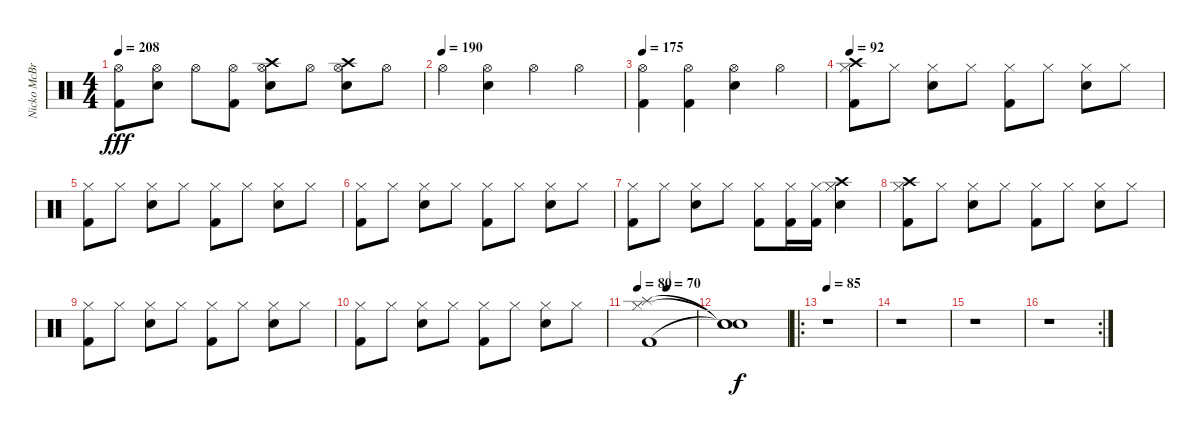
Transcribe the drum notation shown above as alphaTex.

\track ("Nicko McBrain" "Nicko McBr") {instrument percussion}
\staff {score}
\articulation defaults
\ts (4 4)
\tempo 208
\clef neutral
\ks c
("Hi-Hat (open)" "Kick (hit) 2").8{dy fff} ("Hi-Hat (open)" "Snare (hit) 2").8 "Hi-Hat (open)".8 ("Hi-Hat (open)" "Kick (hit) 2").8 ("Hi-Hat (open)" "Snare (hit) 2" "Crash high (hit)").8 "Hi-Hat (open)".8 ("Hi-Hat (open)" "Snare (hit) 2" "Crash high (hit)").8 "Hi-Hat (open)".8 |
\tempo (190)
"Hi-Hat (open)".4 ("Hi-Hat (open)" "Snare (hit) 2").4 "Hi-Hat (open)".4 "Hi-Hat (open)".4 |
\tempo 175
("Hi-Hat (open)" "Kick (hit) 2").4 ("Hi-Hat (open)" "Kick (hit) 2").4 ("Hi-Hat (open)" "Snare (hit) 2").4 "Hi-Hat (open)".4 |
\tempo 92
("Hi-Hat (closed)" "Kick (hit) 2" "Crash high (hit)").8 "Hi-Hat (closed)".8 ("Hi-Hat (closed)" "Snare (hit) 2").8 "Hi-Hat (closed)".8 ("Hi-Hat (closed)" "Kick (hit) 2").8 "Hi-Hat (closed)".8 ("Hi-Hat (closed)" "Snare (hit) 2").8 "Hi-Hat (closed)".8 |
("Hi-Hat (closed)" "Kick (hit) 2").8 "Hi-Hat (closed)".8 ("Hi-Hat (closed)" "Snare (hit) 2").8 "Hi-Hat (closed)".8 ("Hi-Hat (closed)" "Kick (hit) 2").8 "Hi-Hat (closed)".8 ("Hi-Hat (closed)" "Snare (hit) 2").8 "Hi-Hat (closed)".8 |
("Hi-Hat (closed)" "Kick (hit) 2").8 "Hi-Hat (closed)".8 ("Hi-Hat (closed)" "Snare (hit) 2").8 "Hi-Hat (closed)".8 ("Hi-Hat (closed)" "Kick (hit) 2").8 "Hi-Hat (closed)".8 ("Hi-Hat (closed)" "Snare (hit) 2").8 "Hi-Hat (closed)".8 |
("Hi-Hat (closed)" "Kick (hit) 2").8 "Hi-Hat (closed)".8 ("Hi-Hat (closed)" "Snare (hit) 2").8 "Hi-Hat (closed)".8 ("Hi-Hat (closed)" "Kick (hit) 2").8 ("Hi-Hat (closed)" "Kick (hit) 2").16 ("Hi-Hat (closed)" "Kick (hit) 2").16 ("Hi-Hat (closed)" "Snare (hit) 2" "Crash high (hit)").4 |
("Hi-Hat (closed)" "Kick (hit) 2" "Crash high (hit)").8 "Hi-Hat (closed)".8 ("Hi-Hat (closed)" "Snare (hit) 2").8 "Hi-Hat (closed)".8 ("Hi-Hat (closed)" "Kick (hit) 2").8 "Hi-Hat (closed)".8 ("Hi-Hat (closed)" "Snare (hit) 2").8 "Hi-Hat (closed)".8 |
("Hi-Hat (closed)" "Kick (hit) 2").8 "Hi-Hat (closed)".8 ("Hi-Hat (closed)" "Snare (hit) 2").8 "Hi-Hat (closed)".8 ("Hi-Hat (closed)" "Kick (hit) 2").8 "Hi-Hat (closed)".8 ("Hi-Hat (closed)" "Snare (hit) 2").8 "Hi-Hat (closed)".8 |
("Hi-Hat (closed)" "Kick (hit) 2").8 "Hi-Hat (closed)".8 ("Hi-Hat (closed)" "Snare (hit) 2").8 "Hi-Hat (closed)".8 ("Hi-Hat (closed)" "Kick (hit) 2").8 "Hi-Hat (closed)".8 ("Hi-Hat (closed)" "Snare (hit) 2").8 "Hi-Hat (closed)".8 |
\tempo 80
\tempo (70 0.5)
("Hi-Hat (closed)" "Kick (hit) 2" "Splash (hit)").1 |
("Snare (hit)"{t} "Snare (hit)"{t} "Snare (hit)"{t}).1{dy f} |
\ro
\tempo 85
r.1 |
r.1 |
r.1 |
\rc 2
r.1
